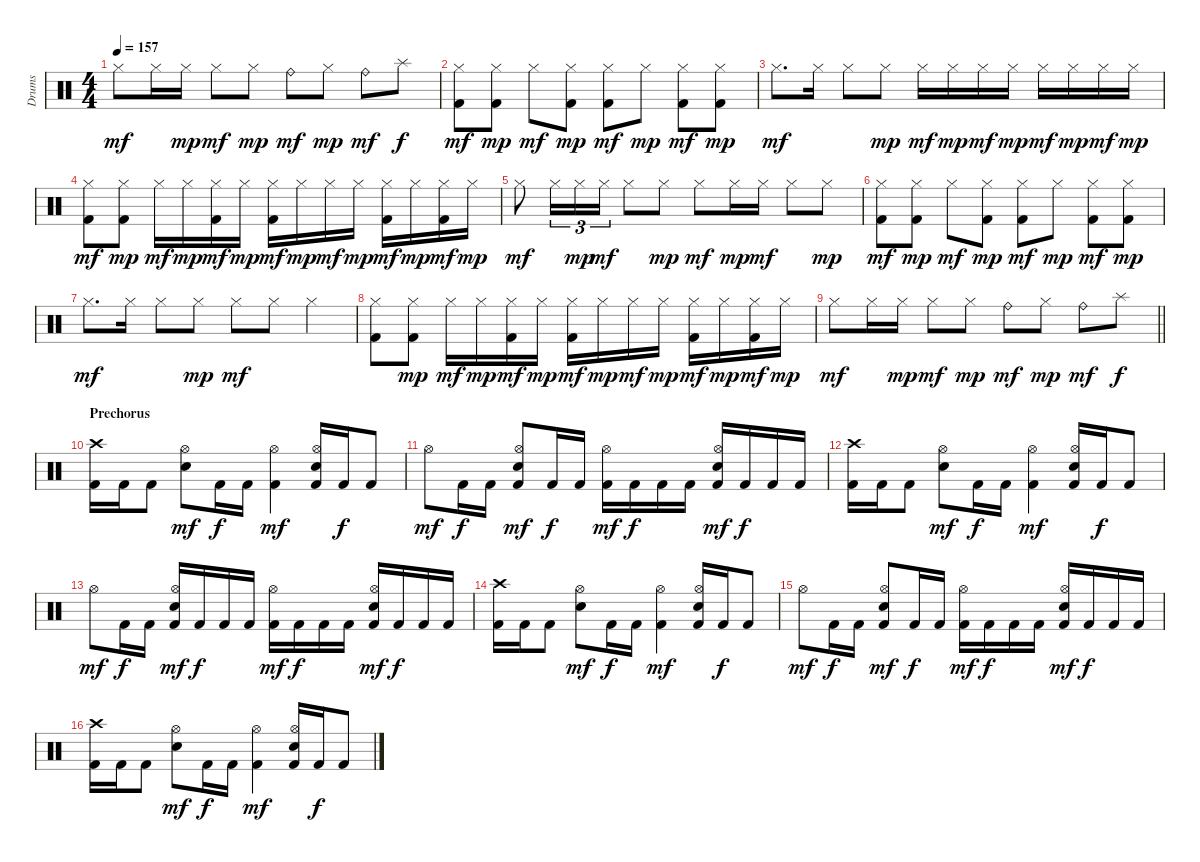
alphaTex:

\track ("Drums" "Drums") {instrument percussion}
\staff {score}
\articulation defaults
\ts (4 4)
\tempo 157
\clef neutral
\ks c "Hi-Hat (closed)".8{dy mf} "Hi-Hat (closed)".16 "Hi-Hat (closed)".16{dy mp} "Hi-Hat (closed)".8{dy mf} "Hi-Hat (closed)".8{dy mp} "Ride (bell)".8{dy mf} "Hi-Hat (closed)".8{dy mp} "Ride (bell)".8{dy mf} "Splash (hit)".8{dy f}
|
("Kick (hit) 2" "Hi-Hat (closed)").8{dy mf} ("Kick (hit) 2" "Hi-Hat (closed)").8{dy mp} "Hi-Hat (closed)".8{dy mf} ("Kick (hit) 2" "Hi-Hat (closed)").8{dy mp} ("Kick (hit) 2" "Hi-Hat (closed)").8{dy mf} "Hi-Hat (closed)".8{dy mp} ("Kick (hit) 2" "Hi-Hat (closed)").8{dy mf} ("Kick (hit) 2" "Hi-Hat (closed)").8{dy mp} |
"Hi-Hat (closed)".8{d dy mf} "Hi-Hat (closed)".16 "Hi-Hat (closed)".8 "Hi-Hat (closed)".8{dy mp} "Hi-Hat (closed)".16{dy mf} "Hi-Hat (closed)".16{dy mp} "Hi-Hat (closed)".16{dy mf} "Hi-Hat (closed)".16{dy mp} "Hi-Hat (closed)".16{dy mf} "Hi-Hat (closed)".16{dy mp} "Hi-Hat (closed)".16{dy mf} "Hi-Hat (closed)".16{dy mp} |
("Kick (hit) 2" "Hi-Hat (closed)").8{dy mf} ("Kick (hit) 2" "Hi-Hat (closed)").8{dy mp} "Hi-Hat (closed)".16{dy mf} "Hi-Hat (closed)".16{dy mp} ("Kick (hit) 2" "Hi-Hat (closed)").16{dy mf} "Hi-Hat (closed)".16{dy mp} ("Kick (hit) 2" "Hi-Hat (closed)").16{dy mf} "Hi-Hat (closed)".16{dy mp} "Hi-Hat (closed)".16{dy mf} "Hi-Hat (closed)".16{dy mp} ("Kick (hit) 2" "Hi-Hat (closed)").16{dy mf} "Hi-Hat (closed)".16{dy mp} ("Kick (hit) 2" "Hi-Hat (closed)").16{dy mf} "Hi-Hat (closed)".16{dy mp} |
"Hi-Hat (closed)".8{dy mf} "Hi-Hat (closed)".16{tu (3 2)} "Hi-Hat (closed)".16{tu (3 2) dy mp} "Hi-Hat (closed)".16{tu (3 2) dy mf} "Hi-Hat (closed)".8 "Hi-Hat (closed)".8{dy mp} "Hi-Hat (closed)".8{dy mf} "Hi-Hat (closed)".16{dy mp} "Hi-Hat (closed)".16{dy mf} "Hi-Hat (closed)".8 "Hi-Hat (closed)".8{dy mp} |
("Kick (hit) 2" "Hi-Hat (closed)").8{dy mf} ("Kick (hit) 2" "Hi-Hat (closed)").8{dy mp} "Hi-Hat (closed)".8{dy mf} ("Kick (hit) 2" "Hi-Hat (closed)").8{dy mp} ("Kick (hit) 2" "Hi-Hat (closed)").8{dy mf} "Hi-Hat (closed)".8{dy mp} ("Kick (hit) 2" "Hi-Hat (closed)").8{dy mf} ("Kick (hit) 2" "Hi-Hat (closed)").8{dy mp} |
"Hi-Hat (closed)".8{d dy mf} "Hi-Hat (closed)".16 "Hi-Hat (closed)".8 "Hi-Hat (closed)".8{dy mp} "Hi-Hat (closed)".8{dy mf} "Hi-Hat (closed)".8 "Hi-Hat (closed)".4 |
("Kick (hit) 2" "Hi-Hat (closed)").8 ("Kick (hit) 2" "Hi-Hat (closed)").8{dy mp} "Hi-Hat (closed)".16{dy mf} "Hi-Hat (closed)".16{dy mp} ("Kick (hit) 2" "Hi-Hat (closed)").16{dy mf} "Hi-Hat (closed)".16{dy mp} ("Kick (hit) 2" "Hi-Hat (closed)").16{dy mf} "Hi-Hat (closed)".16{dy mp} "Hi-Hat (closed)".16{dy mf} "Hi-Hat (closed)".16{dy mp} ("Kick (hit) 2" "Hi-Hat (closed)").16{dy mf} "Hi-Hat (closed)".16{dy mp} ("Kick (hit) 2" "Hi-Hat (closed)").16{dy mf} "Hi-Hat (closed)".16{dy mp} |
\barLineRight lightlight "Hi-Hat (closed)".8{dy mf} "Hi-Hat (closed)".16 "Hi-Hat (closed)".16{dy mp} "Hi-Hat (closed)".8{dy mf} "Hi-Hat (closed)".8{dy mp} "Ride (bell)".8{dy mf} "Hi-Hat (closed)".8{dy mp} "Ride (bell)".8{dy mf} "Splash (hit)".8{dy f}
|
\section ("" "Prechorus")
("Kick (hit) 2" "Crash high (hit)").16 "Kick (hit) 2".16 "Kick (hit) 2".8 ("Hi-Hat (open)" "Electric Snare (hit)").8{dy mf} "Kick (hit) 2".16{dy f} "Kick (hit) 2".16 ("Kick (hit) 2" "Hi-Hat (open)").4{dy mf} ("Kick (hit) 2" "Hi-Hat (open)" "Electric Snare (hit)").16 "Kick (hit) 2".16{dy f} "Kick (hit) 2".8 |
"Hi-Hat (open)".8{dy mf} "Kick (hit) 2".16{dy f} "Kick (hit) 2".16 ("Kick (hit) 2" "Hi-Hat (open)" "Electric Snare (hit)").8{dy mf} "Kick (hit) 2".16{dy f} "Kick (hit) 2".16 ("Kick (hit) 2" "Hi-Hat (open)").16{dy mf} "Kick (hit) 2".16{dy f} "Kick (hit) 2".16 "Kick (hit) 2".16 ("Kick (hit) 2" "Hi-Hat (open)" "Electric Snare (hit)").16{dy mf} "Kick (hit) 2".16{dy f} "Kick (hit) 2".16 "Kick (hit) 2".16 |
("Kick (hit) 2" "Crash high (hit)").16 "Kick (hit) 2".16 "Kick (hit) 2".8 ("Hi-Hat (open)" "Electric Snare (hit)").8{dy mf} "Kick (hit) 2".16{dy f} "Kick (hit) 2".16 ("Kick (hit) 2" "Hi-Hat (open)").4{dy mf} ("Kick (hit) 2" "Hi-Hat (open)" "Electric Snare (hit)").16 "Kick (hit) 2".16{dy f} "Kick (hit) 2".8 |
"Hi-Hat (open)".8{dy mf} "Kick (hit) 2".16{dy f} "Kick (hit) 2".16 ("Kick (hit) 2" "Hi-Hat (open)" "Electric Snare (hit)").16{dy mf} "Kick (hit) 2".16{dy f} "Kick (hit) 2".16 "Kick (hit) 2".16 ("Kick (hit) 2" "Hi-Hat (open)").16{dy mf} "Kick (hit) 2".16{dy f} "Kick (hit) 2".16 "Kick (hit) 2".16 ("Kick (hit) 2" "Hi-Hat (open)" "Electric Snare (hit)").16{dy mf} "Kick (hit) 2".16{dy f} "Kick (hit) 2".16 "Kick (hit) 2".16 |
("Kick (hit) 2" "Crash high (hit)").16 "Kick (hit) 2".16 "Kick (hit) 2".8 ("Hi-Hat (open)" "Electric Snare (hit)").8{dy mf} "Kick (hit) 2".16{dy f} "Kick (hit) 2".16 ("Kick (hit) 2" "Hi-Hat (open)").4{dy mf} ("Kick (hit) 2" "Hi-Hat (open)" "Electric Snare (hit)").16 "Kick (hit) 2".16{dy f} "Kick (hit) 2".8 |
"Hi-Hat (open)".8{dy mf} "Kick (hit) 2".16{dy f} "Kick (hit) 2".16 ("Kick (hit) 2" "Hi-Hat (open)" "Electric Snare (hit)").8{dy mf} "Kick (hit) 2".16{dy f} "Kick (hit) 2".16 ("Kick (hit) 2" "Hi-Hat (open)").16{dy mf} "Kick (hit) 2".16{dy f} "Kick (hit) 2".16 "Kick (hit) 2".16 ("Kick (hit) 2" "Hi-Hat (open)" "Electric Snare (hit)").16{dy mf} "Kick (hit) 2".16{dy f} "Kick (hit) 2".16 "Kick (hit) 2".16 |
("Kick (hit) 2" "Crash high (hit)").16 "Kick (hit) 2".16 "Kick (hit) 2".8 ("Hi-Hat (open)" "Electric Snare (hit)").8{dy mf} "Kick (hit) 2".16{dy f} "Kick (hit) 2".16 ("Kick (hit) 2" "Hi-Hat (open)").4{dy mf} ("Kick (hit) 2" "Hi-Hat (open)" "Electric Snare (hit)").16 "Kick (hit) 2".16{dy f} "Kick (hit) 2".8
